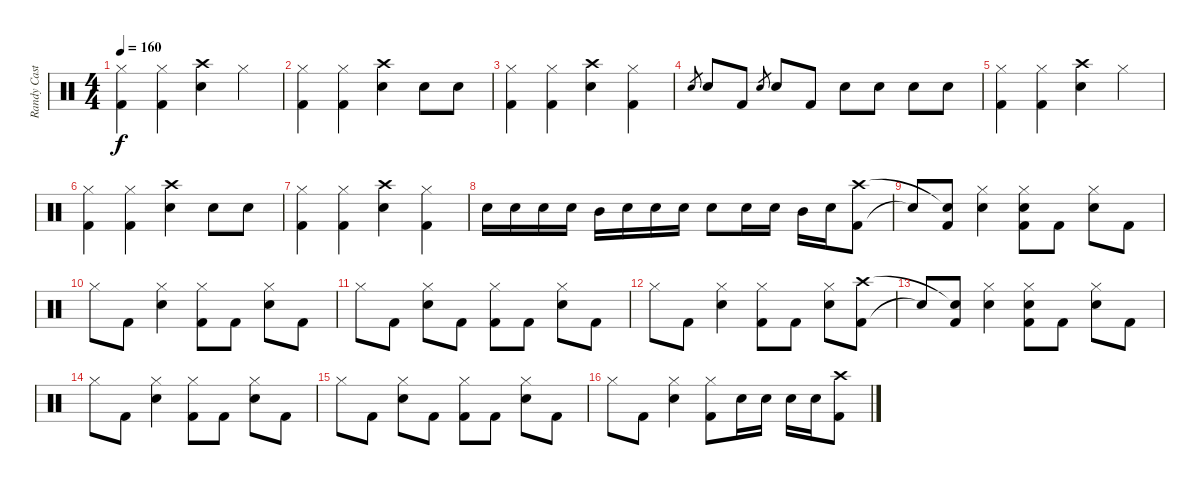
\track ("Randy Castillo" "Randy Cast") {instrument percussion}
\staff {score}
\articulation defaults
\ts (4 4)
\tempo 160
\clef neutral
\ks aminor
("Hi-Hat (closed)" "Kick (hit) 2").4{dy f} ("Hi-Hat (closed)" "Kick (hit) 2").4 ("Snare (hit) 2" "Crash high (hit)").4 "Hi-Hat (closed)".4 |
("Hi-Hat (closed)" "Kick (hit) 2").4 ("Hi-Hat (closed)" "Kick (hit) 2").4 ("Snare (hit) 2" "Crash high (hit)").4 "Snare (hit) 2".8 "Snare (hit) 2".8 |
("Hi-Hat (closed)" "Kick (hit) 2").4 ("Hi-Hat (closed)" "Kick (hit) 2").4 ("Snare (hit) 2" "Crash high (hit)").4 ("Hi-Hat (closed)" "Kick (hit) 2").4 |
"Snare (hit) 2".8{gr} "Snare (hit) 2".8 "Kick (hit) 2".8 "Snare (hit) 2".8{gr} "Snare (hit) 2".8 "Kick (hit) 2".8 "Snare (hit) 2".8 "Snare (hit) 2".8 "Snare (hit) 2".8 "Snare (hit) 2".8 |
("Hi-Hat (closed)" "Kick (hit) 2").4 ("Hi-Hat (closed)" "Kick (hit) 2").4 ("Snare (hit) 2" "Crash high (hit)").4 "Hi-Hat (closed)".4 |
("Hi-Hat (closed)" "Kick (hit) 2").4 ("Hi-Hat (closed)" "Kick (hit) 2").4 ("Snare (hit) 2" "Crash high (hit)").4 "Snare (hit) 2".8 "Snare (hit) 2".8 |
("Hi-Hat (closed)" "Kick (hit) 2").4 ("Hi-Hat (closed)" "Kick (hit) 2").4 ("Snare (hit) 2" "Crash high (hit)").4 ("Hi-Hat (closed)" "Kick (hit) 2").4 |
"Snare (hit) 2".16 "Snare (hit) 2".16 "Snare (hit) 2".16 "Snare (hit) 2".16 "Mid Tom (hit)".16 "Snare (hit) 2".16 "Snare (hit) 2".16 "Snare (hit) 2".16 "Snare (hit) 2".8 "Snare (hit) 2".16 "Snare (hit) 2".16 "Mid Tom (hit)".16 "Snare (hit) 2".16 ("Kick (hit) 2" "Crash high (hit)").8 |
"Snare (hit)"{t}.8 ("Kick (hit) 2" "Snare (hit)"{t}).8 ("Hi-Hat (closed)" "Snare (hit) 2").4 ("Hi-Hat (closed)" "Snare (hit) 2" "Kick (hit) 2").8 "Kick (hit) 2".8 ("Hi-Hat (closed)" "Snare (hit) 2").8 "Kick (hit) 2".8 |
"Hi-Hat (closed)".8 "Kick (hit) 2".8 ("Hi-Hat (closed)" "Snare (hit) 2").4 ("Hi-Hat (closed)" "Kick (hit) 2").8 "Kick (hit) 2".8 ("Hi-Hat (closed)" "Snare (hit) 2").8 "Kick (hit) 2".8 |
"Hi-Hat (closed)".8 "Kick (hit) 2".8 ("Hi-Hat (closed)" "Snare (hit) 2").8 "Kick (hit) 2".8 ("Hi-Hat (closed)" "Kick (hit) 2").8 "Kick (hit) 2".8 ("Hi-Hat (closed)" "Snare (hit) 2").8 "Kick (hit) 2".8 |
"Hi-Hat (closed)".8 "Kick (hit) 2".8 ("Hi-Hat (closed)" "Snare (hit) 2").4 ("Hi-Hat (closed)" "Kick (hit) 2").8 "Kick (hit) 2".8 ("Hi-Hat (closed)" "Snare (hit) 2").8 ("Kick (hit) 2" "Crash high (hit)").8 |
"Snare (hit)"{t}.8 ("Kick (hit) 2" "Snare (hit)"{t}).8 ("Hi-Hat (closed)" "Snare (hit) 2").4 ("Hi-Hat (closed)" "Snare (hit) 2" "Kick (hit) 2").8 "Kick (hit) 2".8 ("Hi-Hat (closed)" "Snare (hit) 2").8 "Kick (hit) 2".8 |
"Hi-Hat (closed)".8 "Kick (hit) 2".8 ("Hi-Hat (closed)" "Snare (hit) 2").4 ("Hi-Hat (closed)" "Kick (hit) 2").8 "Kick (hit) 2".8 ("Hi-Hat (closed)" "Snare (hit) 2").8 "Kick (hit) 2".8 |
"Hi-Hat (closed)".8 "Kick (hit) 2".8 ("Hi-Hat (closed)" "Snare (hit) 2").8 "Kick (hit) 2".8 ("Hi-Hat (closed)" "Kick (hit) 2").8 "Kick (hit) 2".8 ("Hi-Hat (closed)" "Snare (hit) 2").8 "Kick (hit) 2".8 |
"Hi-Hat (closed)".8 "Kick (hit) 2".8 ("Hi-Hat (closed)" "Snare (hit) 2").4 ("Hi-Hat (closed)" "Kick (hit) 2").8 "Snare (hit) 2".16 "Snare (hit) 2".16 "Snare (hit) 2".16 "Snare (hit) 2".16 ("Kick (hit) 2" "Crash high (hit)").8
